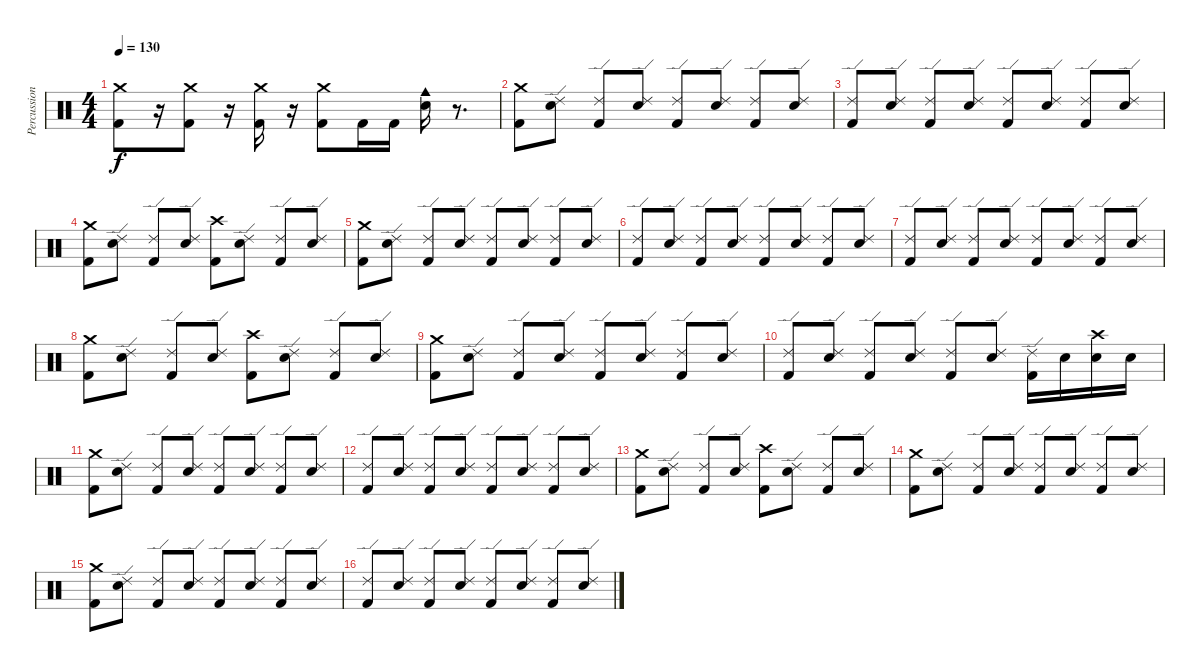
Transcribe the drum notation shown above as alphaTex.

\track ("Percussion" "Percussion") {instrument percussion}
\staff {score}
\articulation defaults
\ts (4 4)
\tempo 130
\clef neutral
\ks c
("Crash medium (hit)" "Kick (hit) 2").8{dy f} r.16 ("Crash medium (hit)" "Kick (hit) 2").8 r.16 ("Crash medium (hit)" "Kick (hit) 2").16 r.16 ("Crash medium (hit)" "Kick (hit) 2").8 "Kick (hit) 2".16 "Kick (hit) 2".16 ("Cowbell medium (hit)" "Electric Snare (hit)").16 r.8{d} |
("Crash medium (hit)" "Kick (hit) 2").8 ("Ride (edge) 2" "Electric Snare (hit)").8 ("Ride (edge) 2" "Kick (hit) 2").8 ("Ride (edge) 2" "Electric Snare (hit)").8 ("Ride (edge) 2" "Kick (hit) 2").8 ("Ride (edge) 2" "Electric Snare (hit)").8 ("Ride (edge) 2" "Kick (hit) 2").8 ("Ride (edge) 2" "Electric Snare (hit)").8 |
("Ride (edge) 2" "Kick (hit) 2").8 ("Ride (edge) 2" "Electric Snare (hit)").8 ("Ride (edge) 2" "Kick (hit) 2").8 ("Ride (edge) 2" "Electric Snare (hit)").8 ("Ride (edge) 2" "Kick (hit) 2").8 ("Ride (edge) 2" "Electric Snare (hit)").8 ("Ride (edge) 2" "Kick (hit) 2").8 ("Ride (edge) 2" "Electric Snare (hit)").8 |
("Crash medium (hit)" "Kick (hit) 2").8 ("Ride (edge) 2" "Electric Snare (hit)").8 ("Ride (edge) 2" "Kick (hit) 2").8 ("Ride (edge) 2" "Electric Snare (hit)").8 ("Crash high (hit)" "Kick (hit) 2").8 ("Ride (edge) 2" "Electric Snare (hit)").8 ("Ride (edge) 2" "Kick (hit) 2").8 ("Ride (edge) 2" "Electric Snare (hit)").8 |
("Crash medium (hit)" "Kick (hit) 2").8 ("Ride (edge) 2" "Electric Snare (hit)").8 ("Ride (edge) 2" "Kick (hit) 2").8 ("Ride (edge) 2" "Electric Snare (hit)").8 ("Ride (edge) 2" "Kick (hit) 2").8 ("Ride (edge) 2" "Electric Snare (hit)").8 ("Ride (edge) 2" "Kick (hit) 2").8 ("Ride (edge) 2" "Electric Snare (hit)").8 |
("Ride (edge) 2" "Kick (hit) 2").8 ("Ride (edge) 2" "Electric Snare (hit)").8 ("Ride (edge) 2" "Kick (hit) 2").8 ("Ride (edge) 2" "Electric Snare (hit)").8 ("Ride (edge) 2" "Kick (hit) 2").8 ("Ride (edge) 2" "Electric Snare (hit)").8 ("Ride (edge) 2" "Kick (hit) 2").8 ("Ride (edge) 2" "Electric Snare (hit)").8 |
("Ride (edge) 2" "Kick (hit) 2").8 ("Ride (edge) 2" "Electric Snare (hit)").8 ("Ride (edge) 2" "Kick (hit) 2").8 ("Ride (edge) 2" "Electric Snare (hit)").8 ("Ride (edge) 2" "Kick (hit) 2").8 ("Ride (edge) 2" "Electric Snare (hit)").8 ("Ride (edge) 2" "Kick (hit) 2").8 ("Ride (edge) 2" "Electric Snare (hit)").8 |
("Crash medium (hit)" "Kick (hit) 2").8 ("Ride (edge) 2" "Electric Snare (hit)").8 ("Ride (edge) 2" "Kick (hit) 2").8 ("Ride (edge) 2" "Electric Snare (hit)").8 ("Crash high (hit)" "Kick (hit) 2").8 ("Ride (edge) 2" "Electric Snare (hit)").8 ("Ride (edge) 2" "Kick (hit) 2").8 ("Ride (edge) 2" "Electric Snare (hit)").8 |
("Crash medium (hit)" "Kick (hit) 2").8 ("Ride (edge) 2" "Electric Snare (hit)").8 ("Ride (edge) 2" "Kick (hit) 2").8 ("Ride (edge) 2" "Electric Snare (hit)").8 ("Ride (edge) 2" "Kick (hit) 2").8 ("Ride (edge) 2" "Electric Snare (hit)").8 ("Ride (edge) 2" "Kick (hit) 2").8 ("Ride (edge) 2" "Electric Snare (hit)").8 |
("Ride (edge) 2" "Kick (hit) 2").8 ("Ride (edge) 2" "Electric Snare (hit)").8 ("Ride (edge) 2" "Kick (hit) 2").8 ("Ride (edge) 2" "Electric Snare (hit)").8 ("Ride (edge) 2" "Kick (hit) 2").8 ("Ride (edge) 2" "Electric Snare (hit)").8 ("Ride (edge) 2" "Kick (hit) 2").16 "Electric Snare (hit)".16 ("Crash high (hit)" "Electric Snare (hit)").16 "Electric Snare (hit)".16 |
("Crash medium (hit)" "Kick (hit) 2").8 ("Ride (edge) 2" "Electric Snare (hit)").8 ("Ride (edge) 2" "Kick (hit) 2").8 ("Ride (edge) 2" "Electric Snare (hit)").8 ("Ride (edge) 2" "Kick (hit) 2").8 ("Ride (edge) 2" "Electric Snare (hit)").8 ("Ride (edge) 2" "Kick (hit) 2").8 ("Ride (edge) 2" "Electric Snare (hit)").8 |
("Ride (edge) 2" "Kick (hit) 2").8 ("Ride (edge) 2" "Electric Snare (hit)").8 ("Ride (edge) 2" "Kick (hit) 2").8 ("Ride (edge) 2" "Electric Snare (hit)").8 ("Ride (edge) 2" "Kick (hit) 2").8 ("Ride (edge) 2" "Electric Snare (hit)").8 ("Ride (edge) 2" "Kick (hit) 2").8 ("Ride (edge) 2" "Electric Snare (hit)").8 |
("Crash medium (hit)" "Kick (hit) 2").8 ("Ride (edge) 2" "Electric Snare (hit)").8 ("Ride (edge) 2" "Kick (hit) 2").8 ("Ride (edge) 2" "Electric Snare (hit)").8 ("Crash high (hit)" "Kick (hit) 2").8 ("Ride (edge) 2" "Electric Snare (hit)").8 ("Ride (edge) 2" "Kick (hit) 2").8 ("Ride (edge) 2" "Electric Snare (hit)").8 |
("Crash medium (hit)" "Kick (hit) 2").8 ("Ride (edge) 2" "Electric Snare (hit)").8 ("Ride (edge) 2" "Kick (hit) 2").8 ("Ride (edge) 2" "Electric Snare (hit)").8 ("Ride (edge) 2" "Kick (hit) 2").8 ("Ride (edge) 2" "Electric Snare (hit)").8 ("Ride (edge) 2" "Kick (hit) 2").8 ("Ride (edge) 2" "Electric Snare (hit)").8 |
("Crash medium (hit)" "Kick (hit) 2").8 ("Ride (edge) 2" "Electric Snare (hit)").8 ("Ride (edge) 2" "Kick (hit) 2").8 ("Ride (edge) 2" "Electric Snare (hit)").8 ("Ride (edge) 2" "Kick (hit) 2").8 ("Ride (edge) 2" "Electric Snare (hit)").8 ("Ride (edge) 2" "Kick (hit) 2").8 ("Ride (edge) 2" "Electric Snare (hit)").8 |
("Ride (edge) 2" "Kick (hit) 2").8 ("Ride (edge) 2" "Electric Snare (hit)").8 ("Ride (edge) 2" "Kick (hit) 2").8 ("Ride (edge) 2" "Electric Snare (hit)").8 ("Ride (edge) 2" "Kick (hit) 2").8 ("Ride (edge) 2" "Electric Snare (hit)").8 ("Ride (edge) 2" "Kick (hit) 2").8 ("Ride (edge) 2" "Electric Snare (hit)").8
